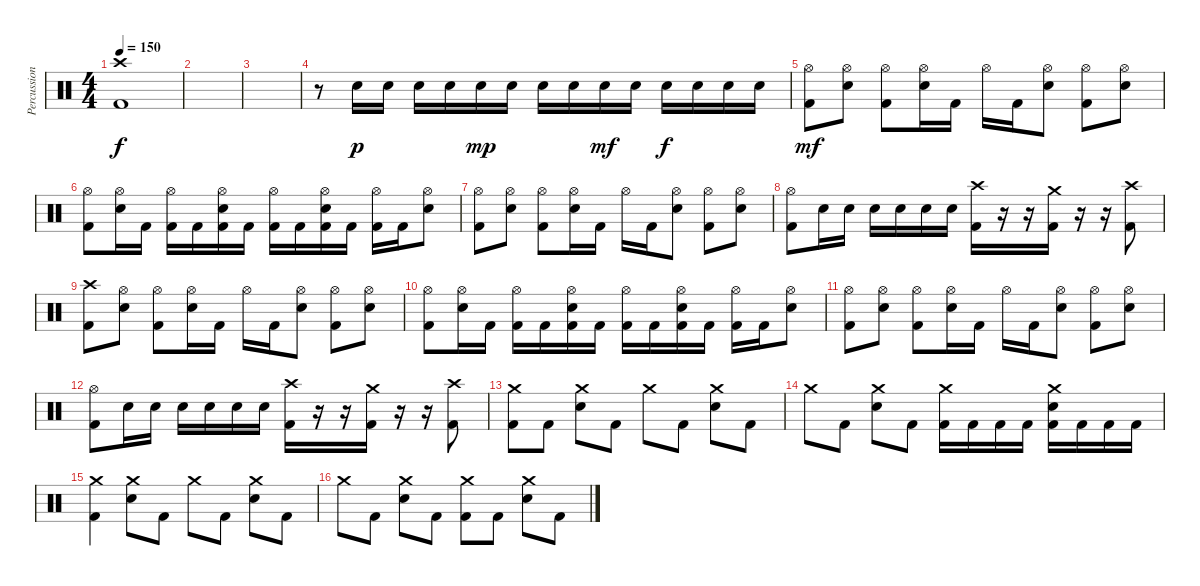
\track ("Percussion" "Percussion") {instrument percussion}
\staff {score}
\articulation defaults
\ts (4 4)
\tempo 150
\clef neutral
\ks c
("Kick (hit) 2" "Crash high (hit)").1{dy f} |
|
|
r.8 "Snare (hit) 2".16{dy p} "Snare (hit) 2".16 "Snare (hit) 2".16 "Snare (hit) 2".16 "Snare (hit) 2".16{dy mp} "Snare (hit) 2".16 "Snare (hit) 2".16 "Snare (hit) 2".16 "Snare (hit) 2".16{dy mf} "Snare (hit) 2".16 "Snare (hit) 2".16{dy f} "Snare (hit) 2".16 "Snare (hit) 2".16 "Snare (hit) 2".16 |
("Hi-Hat (open)" "Kick (hit) 2").8{dy mf} ("Hi-Hat (open)" "Snare (hit) 2").8 ("Hi-Hat (open)" "Kick (hit) 2").8 ("Hi-Hat (open)" "Snare (hit) 2").16 "Kick (hit) 2".16 "Hi-Hat (open)".16 "Kick (hit) 2".16 ("Snare (hit) 2" "Hi-Hat (open)").8 ("Hi-Hat (open)" "Kick (hit) 2").8 ("Snare (hit) 2" "Hi-Hat (open)").8 |
("Kick (hit) 2" "Hi-Hat (open)").8 ("Snare (hit) 2" "Hi-Hat (open)").16 "Kick (hit) 2".16 ("Kick (hit) 2" "Hi-Hat (open)").16 "Kick (hit) 2".16 ("Hi-Hat (open)" "Snare (hit) 2" "Kick (hit) 2").16 "Kick (hit) 2".16 ("Kick (hit) 2" "Hi-Hat (open)").16 "Kick (hit) 2".16 ("Kick (hit) 2" "Hi-Hat (open)" "Snare (hit) 2").16 "Kick (hit) 2".16 ("Hi-Hat (open)" "Kick (hit) 2").16 "Kick (hit) 2".16 ("Hi-Hat (open)" "Snare (hit) 2").8 |
("Hi-Hat (open)" "Kick (hit) 2").8 ("Hi-Hat (open)" "Snare (hit) 2").8 ("Hi-Hat (open)" "Kick (hit) 2").8 ("Hi-Hat (open)" "Snare (hit) 2").16 "Kick (hit) 2".16 "Hi-Hat (open)".16 "Kick (hit) 2".16 ("Snare (hit) 2" "Hi-Hat (open)").8 ("Hi-Hat (open)" "Kick (hit) 2").8 ("Snare (hit) 2" "Hi-Hat (open)").8 |
("Kick (hit) 2" "Hi-Hat (open)").8 "Snare (hit) 2".16 "Snare (hit) 2".16 "Snare (hit) 2".16 "Snare (hit) 2".16 "Snare (hit) 2".16 "Snare (hit) 2".16 ("Kick (hit) 2" "Crash high (hit)").16 r.16 r.16 ("Kick (hit) 2" "Crash medium (hit)").16 r.16 r.16 ("Kick (hit) 2" "Crash high (hit)").8 |
("Crash high (hit)" "Kick (hit) 2").8 ("Hi-Hat (open)" "Snare (hit) 2").8 ("Hi-Hat (open)" "Kick (hit) 2").8 ("Hi-Hat (open)" "Snare (hit) 2").16 "Kick (hit) 2".16 "Hi-Hat (open)".16 "Kick (hit) 2".16 ("Snare (hit) 2" "Hi-Hat (open)").8 ("Hi-Hat (open)" "Kick (hit) 2").8 ("Snare (hit) 2" "Hi-Hat (open)").8 |
("Kick (hit) 2" "Hi-Hat (open)").8 ("Snare (hit) 2" "Hi-Hat (open)").16 "Kick (hit) 2".16 ("Kick (hit) 2" "Hi-Hat (open)").16 "Kick (hit) 2".16 ("Hi-Hat (open)" "Snare (hit) 2" "Kick (hit) 2").16 "Kick (hit) 2".16 ("Kick (hit) 2" "Hi-Hat (open)").16 "Kick (hit) 2".16 ("Kick (hit) 2" "Hi-Hat (open)" "Snare (hit) 2").16 "Kick (hit) 2".16 ("Hi-Hat (open)" "Kick (hit) 2").16 "Kick (hit) 2".16 ("Hi-Hat (open)" "Snare (hit) 2").8 |
("Hi-Hat (open)" "Kick (hit) 2").8 ("Hi-Hat (open)" "Snare (hit) 2").8 ("Hi-Hat (open)" "Kick (hit) 2").8 ("Hi-Hat (open)" "Snare (hit) 2").16 "Kick (hit) 2".16 "Hi-Hat (open)".16 "Kick (hit) 2".16 ("Snare (hit) 2" "Hi-Hat (open)").8 ("Hi-Hat (open)" "Kick (hit) 2").8 ("Snare (hit) 2" "Hi-Hat (open)").8 |
("Kick (hit) 2" "Hi-Hat (open)").8 "Snare (hit) 2".16 "Snare (hit) 2".16 "Snare (hit) 2".16 "Snare (hit) 2".16 "Snare (hit) 2".16 "Snare (hit) 2".16 ("Kick (hit) 2" "Crash high (hit)").16 r.16 r.16 ("Kick (hit) 2" "Crash medium (hit)").16 r.16 r.16 ("Kick (hit) 2" "Crash high (hit)").8 |
("Crash medium (hit)" "Kick (hit) 2").8 "Kick (hit) 2".8 ("Snare (hit) 2" "Crash medium (hit)").8 "Kick (hit) 2".8 "Crash medium (hit)".8 "Kick (hit) 2".8 ("Crash medium (hit)" "Snare (hit) 2").8 "Kick (hit) 2".8 |
"Crash medium (hit)".8 "Kick (hit) 2".8 ("Snare (hit) 2" "Crash medium (hit)").8 "Kick (hit) 2".8 ("Kick (hit) 2" "Crash medium (hit)").16 "Kick (hit) 2".16 "Kick (hit) 2".16 "Kick (hit) 2".16 ("Kick (hit) 2" "Crash medium (hit)" "Snare (hit) 2").16 "Kick (hit) 2".16 "Kick (hit) 2".16 "Kick (hit) 2".16 |
("Kick (hit) 2" "Crash medium (hit)").4 ("Snare (hit) 2" "Crash medium (hit)").8 "Kick (hit) 2".8 "Crash medium (hit)".8 "Kick (hit) 2".8 ("Snare (hit) 2" "Crash medium (hit)").8 "Kick (hit) 2".8 |
"Crash medium (hit)".8 "Kick (hit) 2".8 ("Snare (hit) 2" "Crash medium (hit)").8 "Kick (hit) 2".8 ("Kick (hit) 2" "Crash medium (hit)").8 "Kick (hit) 2".8 ("Snare (hit) 2" "Crash medium (hit)").8 "Kick (hit) 2".8
